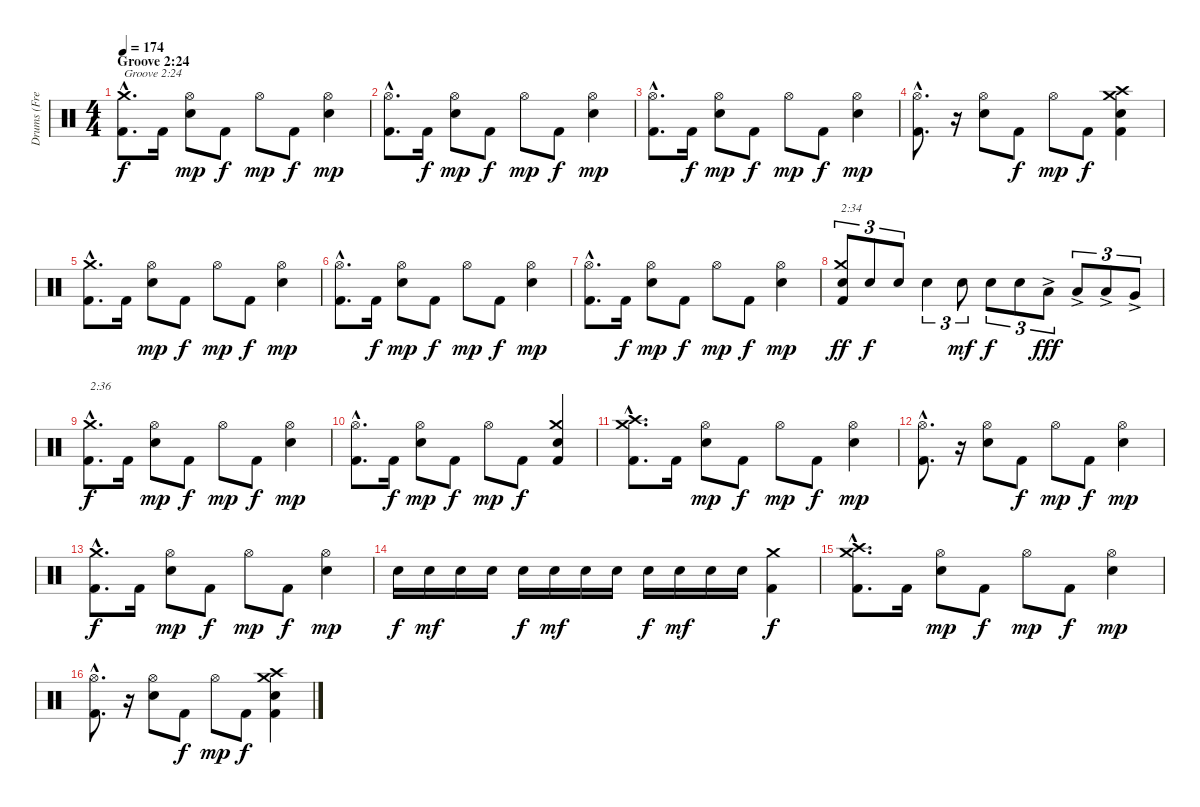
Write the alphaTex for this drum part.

\track ("Drums (Fred Estby)" "Drums (Fre") {instrument percussion}
\staff {score}
\articulation defaults
\ts (4 4)
\section ("" "Groove 2:24")
\tempo 174
\clef neutral
\ks c
("Kick (hit) 2"{hac} "Crash medium (hit)"{hac}).8{d txt "Groove 2:24" dy f} "Kick (hit) 2".16 ("Electric Snare (hit)" "Hi-Hat (open)").8{dy mp} "Kick (hit) 2".8{dy f} "Hi-Hat (open)".8{dy mp} "Kick (hit) 2".8{dy f} ("Electric Snare (hit)" "Hi-Hat (open)").4{dy mp} |
("Kick (hit) 2"{hac} "Hi-Hat (open)"{hac}).8{d} "Kick (hit) 2".16{dy f} ("Electric Snare (hit)" "Hi-Hat (open)").8{dy mp} "Kick (hit) 2".8{dy f} "Hi-Hat (open)".8{dy mp} "Kick (hit) 2".8{dy f} ("Electric Snare (hit)" "Hi-Hat (open)").4{dy mp} |
("Kick (hit) 2"{hac} "Hi-Hat (open)"{hac}).8{d} "Kick (hit) 2".16{dy f} ("Electric Snare (hit)" "Hi-Hat (open)").8{dy mp} "Kick (hit) 2".8{dy f} "Hi-Hat (open)".8{dy mp} "Kick (hit) 2".8{dy f} ("Electric Snare (hit)" "Hi-Hat (open)").4{dy mp} |
("Kick (hit) 2"{hac} "Hi-Hat (open)"{hac}).8{d} r.16 ("Electric Snare (hit)" "Hi-Hat (open)").8 "Kick (hit) 2".8{dy f} "Hi-Hat (open)".8{dy mp} "Kick (hit) 2".8{dy f} ("Kick (hit) 2" "Electric Snare (hit)" "Crash high (hit)" "Crash medium (hit)").4 |
("Kick (hit) 2"{hac} "Crash medium (hit)"{hac}).8{d} "Kick (hit) 2".16 ("Electric Snare (hit)" "Hi-Hat (open)").8{dy mp} "Kick (hit) 2".8{dy f} "Hi-Hat (open)".8{dy mp} "Kick (hit) 2".8{dy f} ("Electric Snare (hit)" "Hi-Hat (open)").4{dy mp} |
("Kick (hit) 2"{hac} "Hi-Hat (open)"{hac}).8{d} "Kick (hit) 2".16{dy f} ("Electric Snare (hit)" "Hi-Hat (open)").8{dy mp} "Kick (hit) 2".8{dy f} "Hi-Hat (open)".8{dy mp} "Kick (hit) 2".8{dy f} ("Electric Snare (hit)" "Hi-Hat (open)").4{dy mp} |
("Kick (hit) 2"{hac} "Hi-Hat (open)"{hac}).8{d} "Kick (hit) 2".16{dy f} ("Electric Snare (hit)" "Hi-Hat (open)").8{dy mp} "Kick (hit) 2".8{dy f} "Hi-Hat (open)".8{dy mp} "Kick (hit) 2".8{dy f} ("Electric Snare (hit)" "Hi-Hat (open)").4{dy mp} |
("Kick (hit) 2" "Electric Snare (hit)" "Crash medium (hit)").8{tu (3 2) txt "2:34" dy ff} "Electric Snare (hit)".8{tu (3 2) dy f} "Electric Snare (hit)".8{tu (3 2)} "Electric Snare (hit)".4{tu (3 2)} "Electric Snare (hit)".8{tu (3 2) dy mf} "Electric Snare (hit)".8{tu (3 2) dy f} "Electric Snare (hit)".8{tu (3 2)} "Low Tom (hit)"{ac}.8{tu (3 2) dy fff} "Low Tom (hit)"{ac}.8{tu (3 2)} "Low Tom (hit)"{ac}.8{tu (3 2)} "Very Low Tom (hit)"{ac}.8{tu (3 2)} |
("Kick (hit) 2"{hac} "Crash medium (hit)"{hac}).8{d txt "2:36" dy f} "Kick (hit) 2".16 ("Electric Snare (hit)" "Hi-Hat (open)").8{dy mp} "Kick (hit) 2".8{dy f} "Hi-Hat (open)".8{dy mp} "Kick (hit) 2".8{dy f} ("Electric Snare (hit)" "Hi-Hat (open)").4{dy mp} |
("Kick (hit) 2"{hac} "Hi-Hat (open)"{hac}).8{d} "Kick (hit) 2".16{dy f} ("Electric Snare (hit)" "Hi-Hat (open)").8{dy mp} "Kick (hit) 2".8{dy f} "Hi-Hat (open)".8{dy mp} "Kick (hit) 2".8{dy f} ("Kick (hit) 2" "Electric Snare (hit)" "Crash medium (hit)").4 |
("Kick (hit) 2"{hac} "Crash medium (hit)"{hac} "Crash high (hit)"{hac}).8{d} "Kick (hit) 2".16 ("Electric Snare (hit)" "Hi-Hat (open)").8{dy mp} "Kick (hit) 2".8{dy f} "Hi-Hat (open)".8{dy mp} "Kick (hit) 2".8{dy f} ("Electric Snare (hit)" "Hi-Hat (open)").4{dy mp} |
("Kick (hit) 2"{hac} "Hi-Hat (open)"{hac}).8{d} r.16 ("Electric Snare (hit)" "Hi-Hat (open)").8 "Kick (hit) 2".8{dy f} "Hi-Hat (open)".8{dy mp} "Kick (hit) 2".8{dy f} ("Electric Snare (hit)" "Hi-Hat (open)").4{dy mp} |
("Kick (hit) 2"{hac} "Crash medium (hit)"{hac}).8{d dy f} "Kick (hit) 2".16 ("Electric Snare (hit)" "Hi-Hat (open)").8{dy mp} "Kick (hit) 2".8{dy f} "Hi-Hat (open)".8{dy mp} "Kick (hit) 2".8{dy f} ("Electric Snare (hit)" "Hi-Hat (open)").4{dy mp} |
"Electric Snare (hit)".16{dy f} "Electric Snare (hit)".16{dy mf} "Electric Snare (hit)".16 "Electric Snare (hit)".16 "Electric Snare (hit)".16{dy f} "Electric Snare (hit)".16{dy mf} "Electric Snare (hit)".16 "Electric Snare (hit)".16 "Electric Snare (hit)".16{dy f} "Electric Snare (hit)".16{dy mf} "Electric Snare (hit)".16 "Electric Snare (hit)".16 ("Kick (hit) 2" "Crash medium (hit)").4{dy f} |
("Kick (hit) 2"{hac} "Crash medium (hit)"{hac} "Crash high (hit)"{hac}).8{d} "Kick (hit) 2".16 ("Electric Snare (hit)" "Hi-Hat (open)").8{dy mp} "Kick (hit) 2".8{dy f} "Hi-Hat (open)".8{dy mp} "Kick (hit) 2".8{dy f} ("Electric Snare (hit)" "Hi-Hat (open)").4{dy mp} |
("Kick (hit) 2"{hac} "Hi-Hat (open)"{hac}).8{d} r.16 ("Electric Snare (hit)" "Hi-Hat (open)").8 "Kick (hit) 2".8{dy f} "Hi-Hat (open)".8{dy mp} "Kick (hit) 2".8{dy f} ("Kick (hit) 2" "Electric Snare (hit)" "Crash high (hit)" "Crash medium (hit)").4
